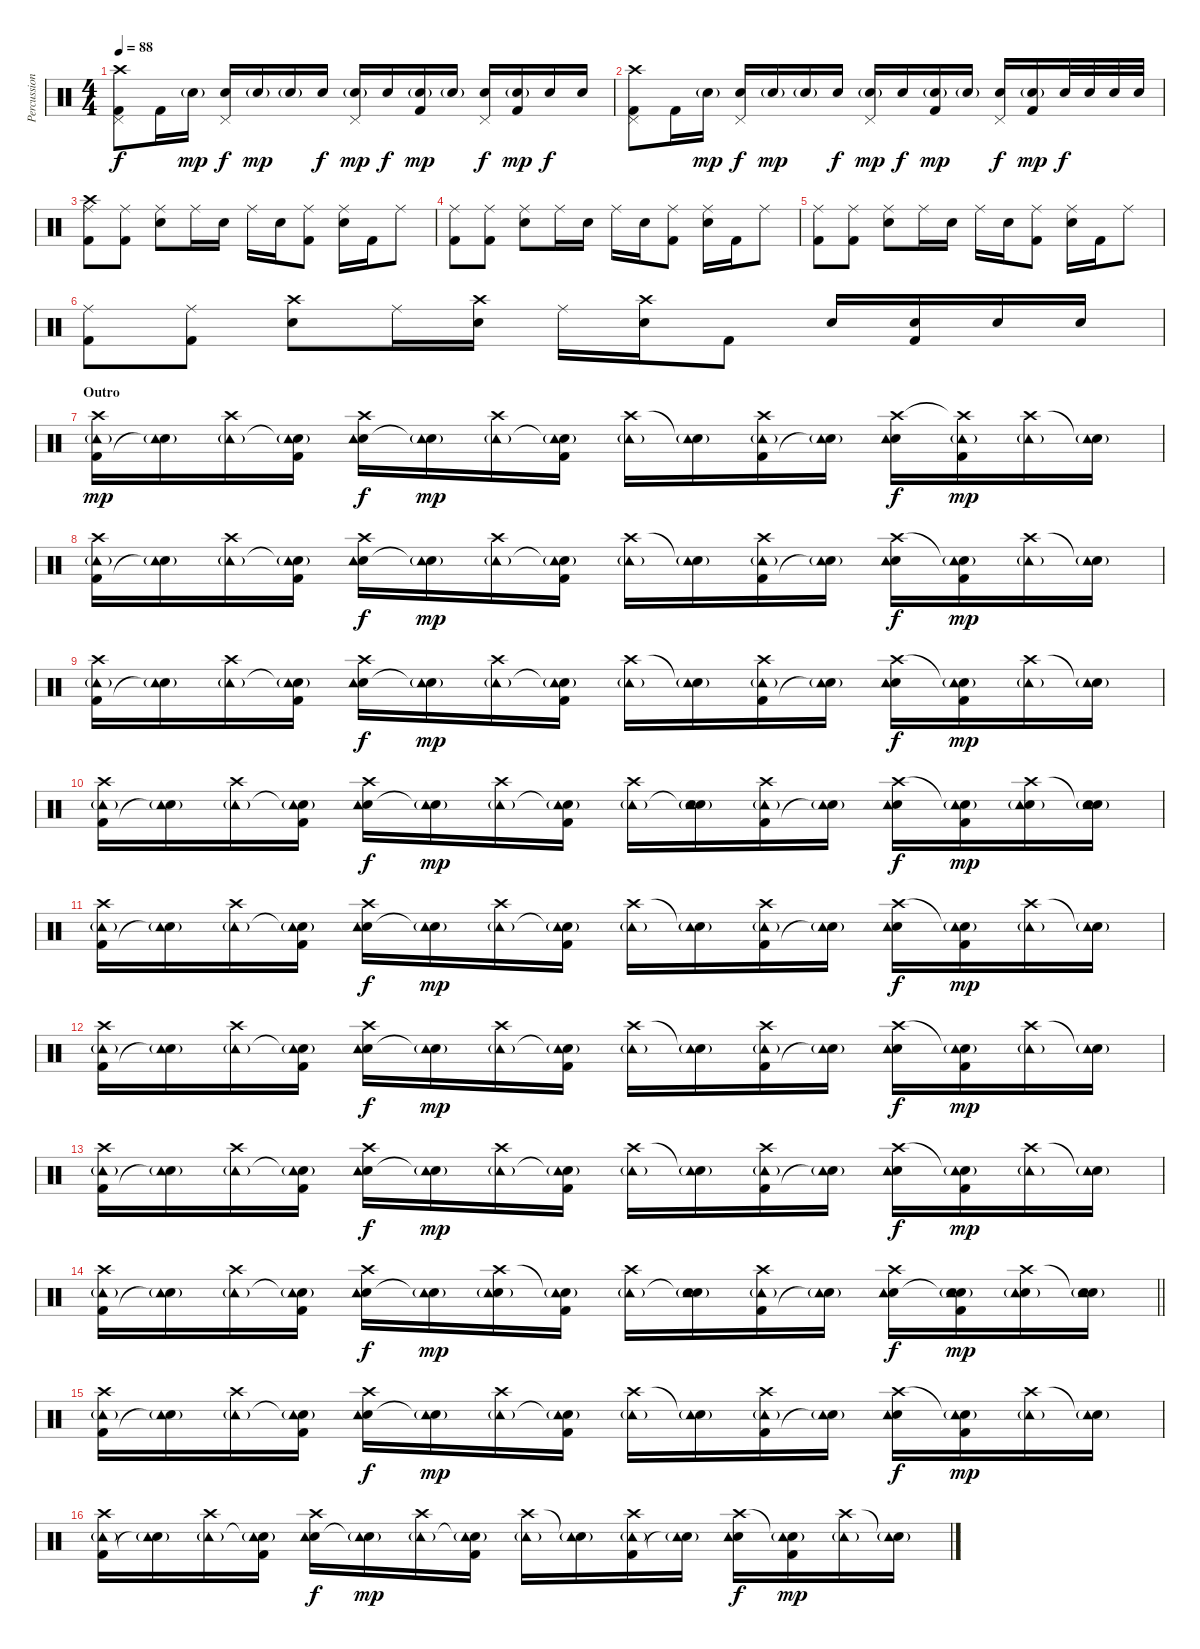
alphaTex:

\track ("Percussion" "Percussion") {instrument percussion}
\staff {score}
\articulation defaults
\ts (4 4)
\tempo 88
\clef neutral
\ks c
("Kick (hit) 2" "Pedal Hi-Hat (hit)" "Crash high (hit)").8{dy f} "Kick (hit) 2".16 "Electric Snare (hit)"{g}.16{dy mp} ("Electric Snare (hit)" "Pedal Hi-Hat (hit)").16{dy f} "Electric Snare (hit)"{g}.16{dy mp} "Electric Snare (hit)"{g}.16 "Electric Snare (hit)".16{dy f} ("Electric Snare (hit)"{g} "Pedal Hi-Hat (hit)").16{dy mp} "Electric Snare (hit)".16{dy f} ("Kick (hit) 2" "Electric Snare (hit)"{g}).16{dy mp} "Electric Snare (hit)"{g}.16 ("Electric Snare (hit)" "Pedal Hi-Hat (hit)").16{dy f} ("Kick (hit) 2" "Electric Snare (hit)"{g}).16{dy mp} "Electric Snare (hit)".16{dy f} "Electric Snare (hit)".16 |
("Kick (hit) 2" "Pedal Hi-Hat (hit)" "Crash high (hit)").8 "Kick (hit) 2".16 "Electric Snare (hit)"{g}.16{dy mp} ("Electric Snare (hit)" "Pedal Hi-Hat (hit)").16{dy f} "Electric Snare (hit)"{g}.16{dy mp} "Electric Snare (hit)"{g}.16 "Electric Snare (hit)".16{dy f} ("Electric Snare (hit)"{g} "Pedal Hi-Hat (hit)").16{dy mp} "Electric Snare (hit)".16{dy f} ("Kick (hit) 2" "Electric Snare (hit)"{g}).16{dy mp} "Electric Snare (hit)"{g}.16 ("Electric Snare (hit)" "Pedal Hi-Hat (hit)").16{dy f} ("Kick (hit) 2" "Electric Snare (hit)"{g}).16{dy mp} "Electric Snare (hit)".32{dy f} "Electric Snare (hit)".32 "Electric Snare (hit)".32 "Electric Snare (hit)".32 |
("Kick (hit) 2" "Ride (middle)" "Crash high (hit)").8 ("Kick (hit) 2" "Ride (middle)").8 ("Electric Snare (hit)" "Ride (middle)").8 "Ride (middle)".16 "Electric Snare (hit)".16 "Ride (middle)".16 "Electric Snare (hit)".16 ("Kick (hit) 2" "Ride (middle)").8 ("Electric Snare (hit)" "Ride (middle)").16 "Kick (hit) 2".16 "Ride (middle)".8 |
("Kick (hit) 2" "Ride (middle)").8 ("Kick (hit) 2" "Ride (middle)").8 ("Electric Snare (hit)" "Ride (middle)").8 "Ride (middle)".16 "Electric Snare (hit)".16 "Ride (middle)".16 "Electric Snare (hit)".16 ("Kick (hit) 2" "Ride (middle)").8 ("Electric Snare (hit)" "Ride (middle)").16 "Kick (hit) 2".16 "Ride (middle)".8 |
("Kick (hit) 2" "Ride (middle)").8 ("Kick (hit) 2" "Ride (middle)").8 ("Electric Snare (hit)" "Ride (middle)").8 "Ride (middle)".16 "Electric Snare (hit)".16 "Ride (middle)".16 "Electric Snare (hit)".16 ("Kick (hit) 2" "Ride (middle)").8 ("Electric Snare (hit)" "Ride (middle)").16 "Kick (hit) 2".16 "Ride (middle)".8 |
("Kick (hit) 2" "Ride (middle)").8 ("Kick (hit) 2" "Ride (middle)").8 ("Electric Snare (hit)" "Crash high (hit)").8 "Ride (middle)".16 ("Electric Snare (hit)" "Crash high (hit)").16 "Ride (middle)".16 ("Electric Snare (hit)" "Crash high (hit)").16 "Kick (hit) 2".8 "Electric Snare (hit)".16 ("Kick (hit) 2" "Electric Snare (hit)").16 "Electric Snare (hit)".16 "Electric Snare (hit)".16 |
\section ("" "Outro")
("Kick (hit) 2" "Crash high (hit)" "Tambourine (hit)"{g}).16{dy mp} ("Snare (hit)"{t} "Tambourine (hit)"{g}).16 ("Crash high (hit)" "Tambourine (hit)"{g}).16 ("Kick (hit) 2" "Snare (hit)"{t} "Tambourine (hit)"{g}).16 ("Electric Snare (hit)" "Crash high (hit)" "Tambourine (hit)").16{dy f} ("Snare (hit)"{t} "Tambourine (hit)"{g}).16{dy mp} ("Crash high (hit)" "Tambourine (hit)"{g}).16 ("Kick (hit) 2" "Snare (hit)"{t} "Tambourine (hit)"{g}).16 ("Crash high (hit)" "Tambourine (hit)"{g}).16 ("Snare (hit)"{t} "Tambourine (hit)"{g}).16 ("Kick (hit) 2" "Crash high (hit)" "Tambourine (hit)"{g}).16 ("Snare (hit)"{t} "Tambourine (hit)"{g}).16 ("Electric Snare (hit)" "Crash high (hit)" "Tambourine (hit)").16{dy f} ("Kick (hit) 2" "Crash high (hit)"{t} "Tambourine (hit)"{g}).16{dy mp} ("Crash high (hit)" "Tambourine (hit)"{g}).16 ("Snare (hit)"{t} "Tambourine (hit)"{g}).16 |
("Kick (hit) 2" "Crash high (hit)" "Tambourine (hit)"{g}).16 ("Snare (hit)"{t} "Tambourine (hit)"{g}).16 ("Crash high (hit)" "Tambourine (hit)"{g}).16 ("Kick (hit) 2" "Snare (hit)"{t} "Tambourine (hit)"{g}).16 ("Electric Snare (hit)" "Crash high (hit)" "Tambourine (hit)").16{dy f} ("Snare (hit)"{t} "Tambourine (hit)"{g}).16{dy mp} ("Crash high (hit)" "Tambourine (hit)"{g}).16 ("Kick (hit) 2" "Snare (hit)"{t} "Tambourine (hit)"{g}).16 ("Crash high (hit)" "Tambourine (hit)"{g}).16 ("Snare (hit)"{t} "Tambourine (hit)"{g}).16 ("Kick (hit) 2" "Crash high (hit)" "Tambourine (hit)"{g}).16 ("Snare (hit)"{t} "Tambourine (hit)"{g}).16 ("Electric Snare (hit)" "Crash high (hit)" "Tambourine (hit)").16{dy f} ("Kick (hit) 2" "Snare (hit)"{t} "Tambourine (hit)"{g}).16{dy mp} ("Crash high (hit)" "Tambourine (hit)"{g}).16 ("Snare (hit)"{t} "Tambourine (hit)"{g}).16 |
("Kick (hit) 2" "Crash high (hit)" "Tambourine (hit)"{g}).16 ("Snare (hit)"{t} "Tambourine (hit)"{g}).16 ("Crash high (hit)" "Tambourine (hit)"{g}).16 ("Kick (hit) 2" "Snare (hit)"{t} "Tambourine (hit)"{g}).16 ("Electric Snare (hit)" "Crash high (hit)" "Tambourine (hit)").16{dy f} ("Snare (hit)"{t} "Tambourine (hit)"{g}).16{dy mp} ("Crash high (hit)" "Tambourine (hit)"{g}).16 ("Kick (hit) 2" "Snare (hit)"{t} "Tambourine (hit)"{g}).16 ("Crash high (hit)" "Tambourine (hit)"{g}).16 ("Snare (hit)"{t} "Tambourine (hit)"{g}).16 ("Kick (hit) 2" "Crash high (hit)" "Tambourine (hit)"{g}).16 ("Snare (hit)"{t} "Tambourine (hit)"{g}).16 ("Electric Snare (hit)" "Crash high (hit)" "Tambourine (hit)").16{dy f} ("Kick (hit) 2" "Snare (hit)"{t} "Tambourine (hit)"{g}).16{dy mp} ("Crash high (hit)" "Tambourine (hit)"{g}).16 ("Snare (hit)"{t} "Tambourine (hit)"{g}).16 |
("Kick (hit) 2" "Crash high (hit)" "Tambourine (hit)"{g}).16 ("Snare (hit)"{t} "Tambourine (hit)"{g}).16 ("Crash high (hit)" "Tambourine (hit)"{g}).16 ("Kick (hit) 2" "Snare (hit)"{t} "Tambourine (hit)"{g}).16 ("Electric Snare (hit)" "Crash high (hit)" "Tambourine (hit)").16{dy f} ("Snare (hit)"{t} "Tambourine (hit)"{g}).16{dy mp} ("Crash high (hit)" "Tambourine (hit)"{g}).16 ("Kick (hit) 2" "Snare (hit)"{t} "Tambourine (hit)"{g}).16 ("Crash high (hit)" "Tambourine (hit)"{g}).16 ("Electric Snare (hit)" "Snare (hit)"{t} "Tambourine (hit)"{g}).16 ("Kick (hit) 2" "Crash high (hit)" "Tambourine (hit)"{g}).16 ("Snare (hit)"{t} "Tambourine (hit)"{g}).16 ("Electric Snare (hit)" "Crash high (hit)" "Tambourine (hit)").16{dy f} ("Kick (hit) 2" "Snare (hit)"{t} "Tambourine (hit)"{g}).16{dy mp} ("Electric Snare (hit)" "Crash high (hit)" "Tambourine (hit)"{g}).16 ("Electric Snare (hit)" "Snare (hit)"{t} "Tambourine (hit)"{g}).16 |
("Kick (hit) 2" "Crash high (hit)" "Tambourine (hit)"{g}).16 ("Snare (hit)"{t} "Tambourine (hit)"{g}).16 ("Crash high (hit)" "Tambourine (hit)"{g}).16 ("Kick (hit) 2" "Snare (hit)"{t} "Tambourine (hit)"{g}).16 ("Electric Snare (hit)" "Crash high (hit)" "Tambourine (hit)").16{dy f} ("Snare (hit)"{t} "Tambourine (hit)"{g}).16{dy mp} ("Crash high (hit)" "Tambourine (hit)"{g}).16 ("Kick (hit) 2" "Snare (hit)"{t} "Tambourine (hit)"{g}).16 ("Crash high (hit)" "Tambourine (hit)"{g}).16 ("Snare (hit)"{t} "Tambourine (hit)"{g}).16 ("Kick (hit) 2" "Crash high (hit)" "Tambourine (hit)"{g}).16 ("Snare (hit)"{t} "Tambourine (hit)"{g}).16 ("Electric Snare (hit)" "Crash high (hit)" "Tambourine (hit)").16{dy f} ("Kick (hit) 2" "Snare (hit)"{t} "Tambourine (hit)"{g}).16{dy mp} ("Crash high (hit)" "Tambourine (hit)"{g}).16 ("Snare (hit)"{t} "Tambourine (hit)"{g}).16 |
("Kick (hit) 2" "Crash high (hit)" "Tambourine (hit)"{g}).16 ("Snare (hit)"{t} "Tambourine (hit)"{g}).16 ("Crash high (hit)" "Tambourine (hit)"{g}).16 ("Kick (hit) 2" "Snare (hit)"{t} "Tambourine (hit)"{g}).16 ("Electric Snare (hit)" "Crash high (hit)" "Tambourine (hit)").16{dy f} ("Snare (hit)"{t} "Tambourine (hit)"{g}).16{dy mp} ("Crash high (hit)" "Tambourine (hit)"{g}).16 ("Kick (hit) 2" "Snare (hit)"{t} "Tambourine (hit)"{g}).16 ("Crash high (hit)" "Tambourine (hit)"{g}).16 ("Snare (hit)"{t} "Tambourine (hit)"{g}).16 ("Kick (hit) 2" "Crash high (hit)" "Tambourine (hit)"{g}).16 ("Snare (hit)"{t} "Tambourine (hit)"{g}).16 ("Electric Snare (hit)" "Crash high (hit)" "Tambourine (hit)").16{dy f} ("Kick (hit) 2" "Snare (hit)"{t} "Tambourine (hit)"{g}).16{dy mp} ("Crash high (hit)" "Tambourine (hit)"{g}).16 ("Snare (hit)"{t} "Tambourine (hit)"{g}).16 |
("Kick (hit) 2" "Crash high (hit)" "Tambourine (hit)"{g}).16 ("Snare (hit)"{t} "Tambourine (hit)"{g}).16 ("Crash high (hit)" "Tambourine (hit)"{g}).16 ("Kick (hit) 2" "Snare (hit)"{t} "Tambourine (hit)"{g}).16 ("Electric Snare (hit)" "Crash high (hit)" "Tambourine (hit)").16{dy f} ("Snare (hit)"{t} "Tambourine (hit)"{g}).16{dy mp} ("Crash high (hit)" "Tambourine (hit)"{g}).16 ("Kick (hit) 2" "Snare (hit)"{t} "Tambourine (hit)"{g}).16 ("Crash high (hit)" "Tambourine (hit)"{g}).16 ("Snare (hit)"{t} "Tambourine (hit)"{g}).16 ("Kick (hit) 2" "Crash high (hit)" "Tambourine (hit)"{g}).16 ("Snare (hit)"{t} "Tambourine (hit)"{g}).16 ("Electric Snare (hit)" "Crash high (hit)" "Tambourine (hit)").16{dy f} ("Kick (hit) 2" "Snare (hit)"{t} "Tambourine (hit)"{g}).16{dy mp} ("Crash high (hit)" "Tambourine (hit)"{g}).16 ("Snare (hit)"{t} "Tambourine (hit)"{g}).16 |
\barLineRight lightlight
("Kick (hit) 2" "Crash high (hit)" "Tambourine (hit)"{g}).16 ("Snare (hit)"{t} "Tambourine (hit)"{g}).16 ("Crash high (hit)" "Tambourine (hit)"{g}).16 ("Kick (hit) 2" "Snare (hit)"{t} "Tambourine (hit)"{g}).16 ("Electric Snare (hit)" "Crash high (hit)" "Tambourine (hit)").16{dy f} ("Snare (hit)"{t} "Tambourine (hit)"{g}).16{dy mp} ("Electric Snare (hit)" "Crash high (hit)" "Tambourine (hit)"{g}).16 ("Kick (hit) 2" "Snare (hit)"{t} "Tambourine (hit)"{g}).16 ("Crash high (hit)" "Tambourine (hit)"{g}).16 ("Electric Snare (hit)" "Snare (hit)"{t} "Tambourine (hit)"{g}).16 ("Kick (hit) 2" "Crash high (hit)" "Tambourine (hit)"{g}).16 ("Snare (hit)"{t} "Tambourine (hit)"{g}).16 ("Electric Snare (hit)" "Crash high (hit)" "Tambourine (hit)").16{dy f} ("Kick (hit) 2" "Electric Snare (hit)" "Snare (hit)"{t} "Tambourine (hit)"{g}).16{dy mp} ("Electric Snare (hit)" "Crash high (hit)" "Tambourine (hit)"{g}).16 ("Electric Snare (hit)" "Snare (hit)"{t} "Tambourine (hit)"{g}).16 |
("Kick (hit) 2" "Crash high (hit)" "Tambourine (hit)"{g}).16 ("Snare (hit)"{t} "Tambourine (hit)"{g}).16 ("Crash high (hit)" "Tambourine (hit)"{g}).16 ("Kick (hit) 2" "Snare (hit)"{t} "Tambourine (hit)"{g}).16 ("Electric Snare (hit)" "Crash high (hit)" "Tambourine (hit)").16{dy f} ("Snare (hit)"{t} "Tambourine (hit)"{g}).16{dy mp} ("Crash high (hit)" "Tambourine (hit)"{g}).16 ("Kick (hit) 2" "Snare (hit)"{t} "Tambourine (hit)"{g}).16 ("Crash high (hit)" "Tambourine (hit)"{g}).16 ("Snare (hit)"{t} "Tambourine (hit)"{g}).16 ("Kick (hit) 2" "Crash high (hit)" "Tambourine (hit)"{g}).16 ("Snare (hit)"{t} "Tambourine (hit)"{g}).16 ("Electric Snare (hit)" "Crash high (hit)" "Tambourine (hit)").16{dy f} ("Kick (hit) 2" "Snare (hit)"{t} "Tambourine (hit)"{g}).16{dy mp} ("Crash high (hit)" "Tambourine (hit)"{g}).16 ("Snare (hit)"{t} "Tambourine (hit)"{g}).16 |
("Kick (hit) 2" "Crash high (hit)" "Tambourine (hit)"{g}).16 ("Snare (hit)"{t} "Tambourine (hit)"{g}).16 ("Crash high (hit)" "Tambourine (hit)"{g}).16 ("Kick (hit) 2" "Snare (hit)"{t} "Tambourine (hit)"{g}).16 ("Electric Snare (hit)" "Crash high (hit)" "Tambourine (hit)").16{dy f} ("Snare (hit)"{t} "Tambourine (hit)"{g}).16{dy mp} ("Crash high (hit)" "Tambourine (hit)"{g}).16 ("Kick (hit) 2" "Snare (hit)"{t} "Tambourine (hit)"{g}).16 ("Crash high (hit)" "Tambourine (hit)"{g}).16 ("Snare (hit)"{t} "Tambourine (hit)"{g}).16 ("Kick (hit) 2" "Crash high (hit)" "Tambourine (hit)"{g}).16 ("Snare (hit)"{t} "Tambourine (hit)"{g}).16 ("Electric Snare (hit)" "Crash high (hit)" "Tambourine (hit)").16{dy f} ("Kick (hit) 2" "Snare (hit)"{t} "Tambourine (hit)"{g}).16{dy mp} ("Crash high (hit)" "Tambourine (hit)"{g}).16 ("Snare (hit)"{t} "Tambourine (hit)"{g}).16
